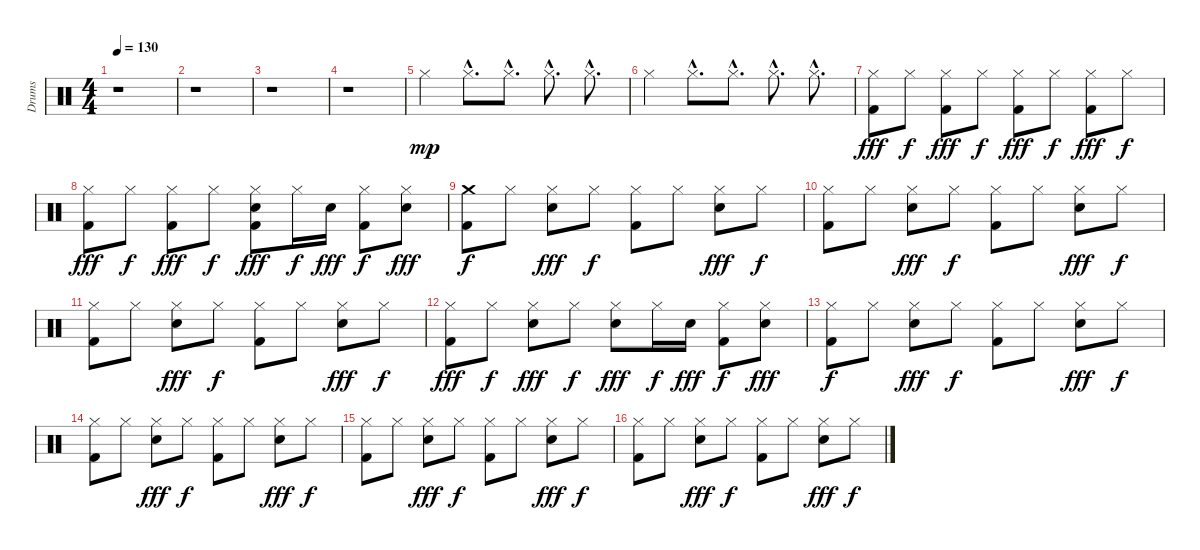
\track ("Drums" "Drums") {instrument percussion}
\staff {score}
\articulation defaults
\ts (4 4)
\tempo 130
\clef neutral
\ks c
r.1{dy mp} |
r.1 |
r.1 |
r.1 |
"Hi-Hat (closed)".4 "Hi-Hat (closed)"{hac}.8{d} "Hi-Hat (closed)"{hac}.8{d} "Hi-Hat (closed)"{hac}.8{d} "Hi-Hat (closed)"{hac}.8{d} |
"Hi-Hat (closed)".4 "Hi-Hat (closed)"{hac}.8{d} "Hi-Hat (closed)"{hac}.8{d} "Hi-Hat (closed)"{hac}.8{d} "Hi-Hat (closed)"{hac}.8{d} |
("Hi-Hat (closed)" "Kick (hit) 2").8{dy fff} "Hi-Hat (closed)".8{dy f} ("Hi-Hat (closed)" "Kick (hit) 2").8{dy fff} "Hi-Hat (closed)".8{dy f} ("Hi-Hat (closed)" "Kick (hit) 2").8{dy fff} "Hi-Hat (closed)".8{dy f} ("Hi-Hat (closed)" "Kick (hit) 2").8{dy fff} "Hi-Hat (closed)".8{dy f} |
("Hi-Hat (closed)" "Kick (hit) 2").8{dy fff} "Hi-Hat (closed)".8{dy f} ("Hi-Hat (closed)" "Kick (hit) 2").8{dy fff} "Hi-Hat (closed)".8{dy f} ("Hi-Hat (closed)" "Snare (hit) 2" "Kick (hit) 2").8{dy fff} "Hi-Hat (closed)".16{dy f} "Snare (hit) 2".16{dy fff} ("Hi-Hat (closed)" "Kick (hit) 2").8{dy f} ("Hi-Hat (closed)" "Snare (hit) 2").8{dy fff} |
("Crash medium (hit)" "Kick (hit) 2").8{dy f} "Hi-Hat (closed)".8 ("Hi-Hat (closed)" "Snare (hit) 2").8{dy fff} "Hi-Hat (closed)".8{dy f} ("Hi-Hat (closed)" "Kick (hit) 2").8 "Hi-Hat (closed)".8 ("Hi-Hat (closed)" "Snare (hit) 2").8{dy fff} "Hi-Hat (closed)".8{dy f} |
("Hi-Hat (closed)" "Kick (hit) 2").8 "Hi-Hat (closed)".8 ("Hi-Hat (closed)" "Snare (hit) 2").8{dy fff} "Hi-Hat (closed)".8{dy f} ("Hi-Hat (closed)" "Kick (hit) 2").8 "Hi-Hat (closed)".8 ("Hi-Hat (closed)" "Snare (hit) 2").8{dy fff} "Hi-Hat (closed)".8{dy f} |
("Hi-Hat (closed)" "Kick (hit) 2").8 "Hi-Hat (closed)".8 ("Hi-Hat (closed)" "Snare (hit) 2").8{dy fff} "Hi-Hat (closed)".8{dy f} ("Hi-Hat (closed)" "Kick (hit) 2").8 "Hi-Hat (closed)".8 ("Hi-Hat (closed)" "Snare (hit) 2").8{dy fff} "Hi-Hat (closed)".8{dy f} |
("Hi-Hat (closed)" "Kick (hit) 2").8{dy fff} "Hi-Hat (closed)".8{dy f} ("Hi-Hat (closed)" "Snare (hit) 2").8{dy fff} "Hi-Hat (closed)".8{dy f} ("Hi-Hat (closed)" "Snare (hit) 2").8{dy fff} "Hi-Hat (closed)".16{dy f} "Snare (hit) 2".16{dy fff} ("Hi-Hat (closed)" "Kick (hit) 2").8{dy f} ("Hi-Hat (closed)" "Snare (hit) 2").8{dy fff} |
("Hi-Hat (closed)" "Kick (hit) 2").8{dy f} "Hi-Hat (closed)".8 ("Hi-Hat (closed)" "Snare (hit) 2").8{dy fff} "Hi-Hat (closed)".8{dy f} ("Hi-Hat (closed)" "Kick (hit) 2").8 "Hi-Hat (closed)".8 ("Hi-Hat (closed)" "Snare (hit) 2").8{dy fff} "Hi-Hat (closed)".8{dy f} |
("Hi-Hat (closed)" "Kick (hit) 2").8 "Hi-Hat (closed)".8 ("Hi-Hat (closed)" "Snare (hit) 2").8{dy fff} "Hi-Hat (closed)".8{dy f} ("Hi-Hat (closed)" "Kick (hit) 2").8 "Hi-Hat (closed)".8 ("Hi-Hat (closed)" "Snare (hit) 2").8{dy fff} "Hi-Hat (closed)".8{dy f} |
("Hi-Hat (closed)" "Kick (hit) 2").8 "Hi-Hat (closed)".8 ("Hi-Hat (closed)" "Snare (hit) 2").8{dy fff} "Hi-Hat (closed)".8{dy f} ("Hi-Hat (closed)" "Kick (hit) 2").8 "Hi-Hat (closed)".8 ("Hi-Hat (closed)" "Snare (hit) 2").8{dy fff} "Hi-Hat (closed)".8{dy f} |
("Hi-Hat (closed)" "Kick (hit) 2").8 "Hi-Hat (closed)".8 ("Hi-Hat (closed)" "Snare (hit) 2").8{dy fff} "Hi-Hat (closed)".8{dy f} ("Hi-Hat (closed)" "Kick (hit) 2").8 "Hi-Hat (closed)".8 ("Hi-Hat (closed)" "Snare (hit) 2").8{dy fff} "Hi-Hat (closed)".8{dy f}
